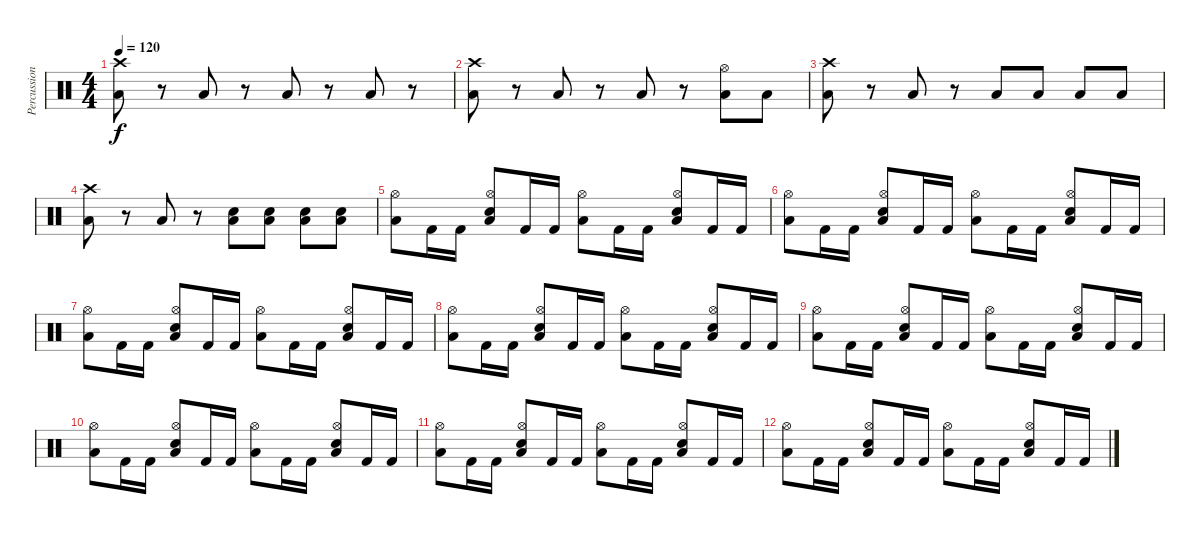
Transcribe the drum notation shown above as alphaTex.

\track ("Percussions" "Percussion") {instrument percussion}
\staff {score}
\articulation defaults
\ts (4 4)
\tempo 120
\clef neutral
\ks c
("Crash high (hit)" "Low Tom (hit)").8{dy f} r.8 "Low Tom (hit)".8 r.8 "Low Tom (hit)".8 r.8 "Low Tom (hit)".8 r.8 |
("Crash high (hit)" "Low Tom (hit)").8 r.8 "Low Tom (hit)".8 r.8 "Low Tom (hit)".8 r.8 ("Hi-Hat (open)" "Low Tom (hit)").8 "Low Tom (hit)".8 |
("Crash high (hit)" "Low Tom (hit)").8 r.8 "Low Tom (hit)".8 r.8 "Low Tom (hit)".8 "Low Tom (hit)".8 "Low Tom (hit)".8 "Low Tom (hit)".8 |
("Crash high (hit)" "Low Tom (hit)").8 r.8 "Low Tom (hit)".8 r.8 ("Low Tom (hit)" "Snare (hit) 2").8 ("Low Tom (hit)" "Snare (hit) 2").8 ("Low Tom (hit)" "Snare (hit) 2").8 ("Low Tom (hit)" "Snare (hit) 2").8 |
("Hi-Hat (open)" "Low Tom (hit)").8 "Kick (hit) 2".16 "Kick (hit) 2".16 ("Hi-Hat (open)" "Low Tom (hit)" "Snare (hit) 2").8 "Kick (hit) 2".16 "Kick (hit) 2".16 ("Hi-Hat (open)" "Low Tom (hit)").8 "Kick (hit) 2".16 "Kick (hit) 2".16 ("Hi-Hat (open)" "Low Tom (hit)" "Snare (hit) 2").8 "Kick (hit) 2".16 "Kick (hit) 2".16 |
("Hi-Hat (open)" "Low Tom (hit)").8 "Kick (hit) 2".16 "Kick (hit) 2".16 ("Hi-Hat (open)" "Low Tom (hit)" "Snare (hit) 2").8 "Kick (hit) 2".16 "Kick (hit) 2".16 ("Hi-Hat (open)" "Low Tom (hit)").8 "Kick (hit) 2".16 "Kick (hit) 2".16 ("Hi-Hat (open)" "Low Tom (hit)" "Snare (hit) 2").8 "Kick (hit) 2".16 "Kick (hit) 2".16 |
("Hi-Hat (open)" "Low Tom (hit)").8 "Kick (hit) 2".16 "Kick (hit) 2".16 ("Hi-Hat (open)" "Low Tom (hit)" "Snare (hit) 2").8 "Kick (hit) 2".16 "Kick (hit) 2".16 ("Hi-Hat (open)" "Low Tom (hit)").8 "Kick (hit) 2".16 "Kick (hit) 2".16 ("Hi-Hat (open)" "Low Tom (hit)" "Snare (hit) 2").8 "Kick (hit) 2".16 "Kick (hit) 2".16 |
("Hi-Hat (open)" "Low Tom (hit)").8 "Kick (hit) 2".16 "Kick (hit) 2".16 ("Hi-Hat (open)" "Low Tom (hit)" "Snare (hit) 2").8 "Kick (hit) 2".16 "Kick (hit) 2".16 ("Hi-Hat (open)" "Low Tom (hit)").8 "Kick (hit) 2".16 "Kick (hit) 2".16 ("Hi-Hat (open)" "Low Tom (hit)" "Snare (hit) 2").8 "Kick (hit) 2".16 "Kick (hit) 2".16 |
("Hi-Hat (open)" "Low Tom (hit)").8 "Kick (hit) 2".16 "Kick (hit) 2".16 ("Hi-Hat (open)" "Low Tom (hit)" "Snare (hit) 2").8 "Kick (hit) 2".16 "Kick (hit) 2".16 ("Hi-Hat (open)" "Low Tom (hit)").8 "Kick (hit) 2".16 "Kick (hit) 2".16 ("Hi-Hat (open)" "Low Tom (hit)" "Snare (hit) 2").8 "Kick (hit) 2".16 "Kick (hit) 2".16 |
("Hi-Hat (open)" "Low Tom (hit)").8 "Kick (hit) 2".16 "Kick (hit) 2".16 ("Hi-Hat (open)" "Low Tom (hit)" "Snare (hit) 2").8 "Kick (hit) 2".16 "Kick (hit) 2".16 ("Hi-Hat (open)" "Low Tom (hit)").8 "Kick (hit) 2".16 "Kick (hit) 2".16 ("Hi-Hat (open)" "Low Tom (hit)" "Snare (hit) 2").8 "Kick (hit) 2".16 "Kick (hit) 2".16 |
("Hi-Hat (open)" "Low Tom (hit)").8 "Kick (hit) 2".16 "Kick (hit) 2".16 ("Hi-Hat (open)" "Low Tom (hit)" "Snare (hit) 2").8 "Kick (hit) 2".16 "Kick (hit) 2".16 ("Hi-Hat (open)" "Low Tom (hit)").8 "Kick (hit) 2".16 "Kick (hit) 2".16 ("Hi-Hat (open)" "Low Tom (hit)" "Snare (hit) 2").8 "Kick (hit) 2".16 "Kick (hit) 2".16 |
("Hi-Hat (open)" "Low Tom (hit)").8 "Kick (hit) 2".16 "Kick (hit) 2".16 ("Hi-Hat (open)" "Low Tom (hit)" "Snare (hit) 2").8 "Kick (hit) 2".16 "Kick (hit) 2".16 ("Hi-Hat (open)" "Low Tom (hit)").8 "Kick (hit) 2".16 "Kick (hit) 2".16 ("Hi-Hat (open)" "Low Tom (hit)" "Snare (hit) 2").8 "Kick (hit) 2".16 "Kick (hit) 2".16
